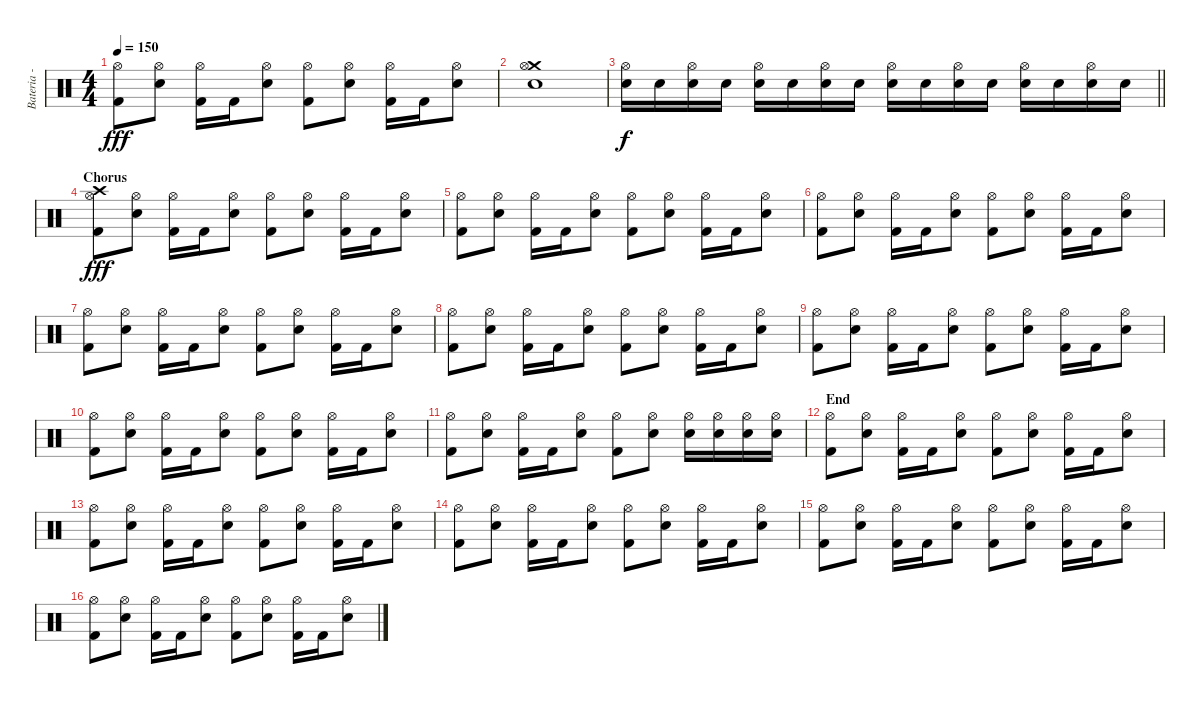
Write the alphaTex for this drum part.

\track ("Bateria - Larzon" "Bateria - ") {instrument percussion}
\staff {score}
\articulation defaults
\ts (4 4)
\tempo 150
\clef neutral
\ks c
("Kick (hit) 2" "Hi-Hat (open)").8{dy fff} ("Hi-Hat (open)" "Snare (hit) 2").8 ("Kick (hit) 2" "Hi-Hat (open)").16 "Kick (hit) 2".16 ("Hi-Hat (open)" "Snare (hit) 2").8 ("Kick (hit) 2" "Hi-Hat (open)").8 ("Hi-Hat (open)" "Snare (hit) 2").8 ("Kick (hit) 2" "Hi-Hat (open)").16 "Kick (hit) 2".16 ("Hi-Hat (open)" "Snare (hit) 2").8 |
("Crash medium (hit)" "Hi-Hat (open)" "Snare (hit) 2").1 |
\barLineRight lightlight
("Hi-Hat (open)" "Snare (hit) 2").16{dy f} "Snare (hit) 2".16 ("Hi-Hat (open)" "Snare (hit) 2").16 "Snare (hit) 2".16 ("Hi-Hat (open)" "Snare (hit) 2").16 "Snare (hit) 2".16 ("Hi-Hat (open)" "Snare (hit) 2").16 "Snare (hit) 2".16 ("Hi-Hat (open)" "Snare (hit) 2").16 "Snare (hit) 2".16 ("Hi-Hat (open)" "Snare (hit) 2").16 "Snare (hit) 2".16 ("Hi-Hat (open)" "Snare (hit) 2").16 "Snare (hit) 2".16 ("Hi-Hat (open)" "Snare (hit) 2").16 "Snare (hit) 2".16 |
\section ("" "Chorus")
("Kick (hit) 2" "Crash high (hit)" "Hi-Hat (open)").8{dy fff} ("Hi-Hat (open)" "Snare (hit) 2").8 ("Kick (hit) 2" "Hi-Hat (open)").16 "Kick (hit) 2".16 ("Hi-Hat (open)" "Snare (hit) 2").8 ("Kick (hit) 2" "Hi-Hat (open)").8 ("Hi-Hat (open)" "Snare (hit) 2").8 ("Kick (hit) 2" "Hi-Hat (open)").16 "Kick (hit) 2".16 ("Hi-Hat (open)" "Snare (hit) 2").8 |
("Kick (hit) 2" "Hi-Hat (open)").8 ("Hi-Hat (open)" "Snare (hit) 2").8 ("Kick (hit) 2" "Hi-Hat (open)").16 "Kick (hit) 2".16 ("Hi-Hat (open)" "Snare (hit) 2").8 ("Kick (hit) 2" "Hi-Hat (open)").8 ("Hi-Hat (open)" "Snare (hit) 2").8 ("Kick (hit) 2" "Hi-Hat (open)").16 "Kick (hit) 2".16 ("Hi-Hat (open)" "Snare (hit) 2").8 |
("Kick (hit) 2" "Hi-Hat (open)").8 ("Hi-Hat (open)" "Snare (hit) 2").8 ("Kick (hit) 2" "Hi-Hat (open)").16 "Kick (hit) 2".16 ("Hi-Hat (open)" "Snare (hit) 2").8 ("Kick (hit) 2" "Hi-Hat (open)").8 ("Hi-Hat (open)" "Snare (hit) 2").8 ("Kick (hit) 2" "Hi-Hat (open)").16 "Kick (hit) 2".16 ("Hi-Hat (open)" "Snare (hit) 2").8 |
("Kick (hit) 2" "Hi-Hat (open)").8 ("Hi-Hat (open)" "Snare (hit) 2").8 ("Kick (hit) 2" "Hi-Hat (open)").16 "Kick (hit) 2".16 ("Hi-Hat (open)" "Snare (hit) 2").8 ("Kick (hit) 2" "Hi-Hat (open)").8 ("Hi-Hat (open)" "Snare (hit) 2").8 ("Kick (hit) 2" "Hi-Hat (open)").16 "Kick (hit) 2".16 ("Hi-Hat (open)" "Snare (hit) 2").8 |
("Kick (hit) 2" "Hi-Hat (open)").8 ("Hi-Hat (open)" "Snare (hit) 2").8 ("Kick (hit) 2" "Hi-Hat (open)").16 "Kick (hit) 2".16 ("Hi-Hat (open)" "Snare (hit) 2").8 ("Kick (hit) 2" "Hi-Hat (open)").8 ("Hi-Hat (open)" "Snare (hit) 2").8 ("Kick (hit) 2" "Hi-Hat (open)").16 "Kick (hit) 2".16 ("Hi-Hat (open)" "Snare (hit) 2").8 |
("Kick (hit) 2" "Hi-Hat (open)").8 ("Hi-Hat (open)" "Snare (hit) 2").8 ("Kick (hit) 2" "Hi-Hat (open)").16 "Kick (hit) 2".16 ("Hi-Hat (open)" "Snare (hit) 2").8 ("Kick (hit) 2" "Hi-Hat (open)").8 ("Hi-Hat (open)" "Snare (hit) 2").8 ("Kick (hit) 2" "Hi-Hat (open)").16 "Kick (hit) 2".16 ("Hi-Hat (open)" "Snare (hit) 2").8 |
("Kick (hit) 2" "Hi-Hat (open)").8 ("Hi-Hat (open)" "Snare (hit) 2").8 ("Kick (hit) 2" "Hi-Hat (open)").16 "Kick (hit) 2".16 ("Hi-Hat (open)" "Snare (hit) 2").8 ("Kick (hit) 2" "Hi-Hat (open)").8 ("Hi-Hat (open)" "Snare (hit) 2").8 ("Kick (hit) 2" "Hi-Hat (open)").16 "Kick (hit) 2".16 ("Hi-Hat (open)" "Snare (hit) 2").8 |
("Kick (hit) 2" "Hi-Hat (open)").8 ("Hi-Hat (open)" "Snare (hit) 2").8 ("Kick (hit) 2" "Hi-Hat (open)").16 "Kick (hit) 2".16 ("Hi-Hat (open)" "Snare (hit) 2").8 ("Kick (hit) 2" "Hi-Hat (open)").8 ("Hi-Hat (open)" "Snare (hit) 2").8 ("Hi-Hat (open)" "Snare (hit) 2").16 ("Hi-Hat (open)" "Snare (hit) 2").16 ("Hi-Hat (open)" "Snare (hit) 2").16 ("Hi-Hat (open)" "Snare (hit) 2").16 |
\section ("" "End")
("Kick (hit) 2" "Hi-Hat (open)").8 ("Hi-Hat (open)" "Snare (hit) 2").8 ("Kick (hit) 2" "Hi-Hat (open)").16 "Kick (hit) 2".16 ("Hi-Hat (open)" "Snare (hit) 2").8 ("Kick (hit) 2" "Hi-Hat (open)").8 ("Hi-Hat (open)" "Snare (hit) 2").8 ("Kick (hit) 2" "Hi-Hat (open)").16 "Kick (hit) 2".16 ("Hi-Hat (open)" "Snare (hit) 2").8 |
("Kick (hit) 2" "Hi-Hat (open)").8 ("Hi-Hat (open)" "Snare (hit) 2").8 ("Kick (hit) 2" "Hi-Hat (open)").16 "Kick (hit) 2".16 ("Hi-Hat (open)" "Snare (hit) 2").8 ("Kick (hit) 2" "Hi-Hat (open)").8 ("Hi-Hat (open)" "Snare (hit) 2").8 ("Kick (hit) 2" "Hi-Hat (open)").16 "Kick (hit) 2".16 ("Hi-Hat (open)" "Snare (hit) 2").8 |
("Kick (hit) 2" "Hi-Hat (open)").8 ("Hi-Hat (open)" "Snare (hit) 2").8 ("Kick (hit) 2" "Hi-Hat (open)").16 "Kick (hit) 2".16 ("Hi-Hat (open)" "Snare (hit) 2").8 ("Kick (hit) 2" "Hi-Hat (open)").8 ("Hi-Hat (open)" "Snare (hit) 2").8 ("Kick (hit) 2" "Hi-Hat (open)").16 "Kick (hit) 2".16 ("Hi-Hat (open)" "Snare (hit) 2").8 |
("Kick (hit) 2" "Hi-Hat (open)").8 ("Hi-Hat (open)" "Snare (hit) 2").8 ("Kick (hit) 2" "Hi-Hat (open)").16 "Kick (hit) 2".16 ("Hi-Hat (open)" "Snare (hit) 2").8 ("Kick (hit) 2" "Hi-Hat (open)").8 ("Hi-Hat (open)" "Snare (hit) 2").8 ("Kick (hit) 2" "Hi-Hat (open)").16 "Kick (hit) 2".16 ("Hi-Hat (open)" "Snare (hit) 2").8 |
("Kick (hit) 2" "Hi-Hat (open)").8 ("Hi-Hat (open)" "Snare (hit) 2").8 ("Kick (hit) 2" "Hi-Hat (open)").16 "Kick (hit) 2".16 ("Hi-Hat (open)" "Snare (hit) 2").8 ("Kick (hit) 2" "Hi-Hat (open)").8 ("Hi-Hat (open)" "Snare (hit) 2").8 ("Kick (hit) 2" "Hi-Hat (open)").16 "Kick (hit) 2".16 ("Hi-Hat (open)" "Snare (hit) 2").8
